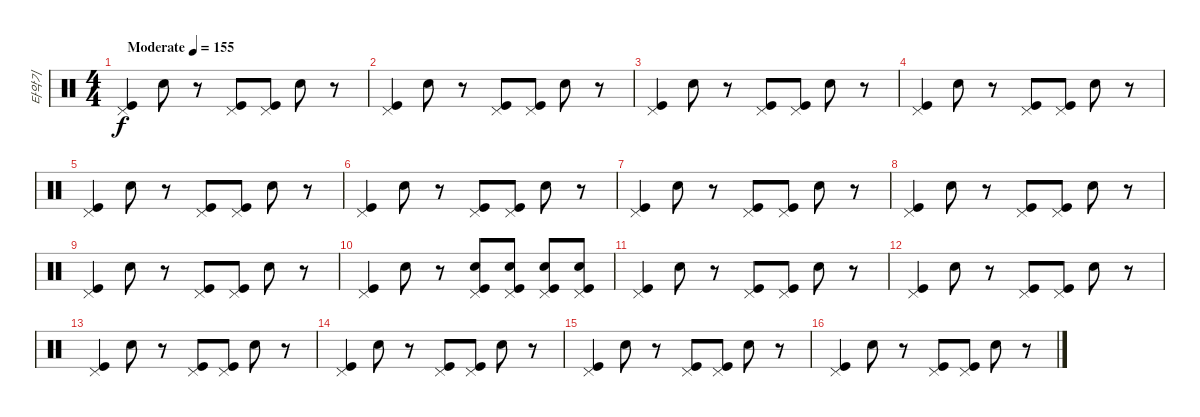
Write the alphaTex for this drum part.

\track ("타악기" "타악기") {instrument percussion}
\staff {score}
\articulation defaults
\ts (4 4)
\tempo (155 "Moderate")
\clef neutral
\ks c
("Pedal Hi-Hat (hit)" "Kick (hit)").4{dy f} "Electric Snare (hit)".8 r.8 ("Pedal Hi-Hat (hit)" "Kick (hit)").8 ("Pedal Hi-Hat (hit)" "Kick (hit)").8 "Electric Snare (hit)".8 r.8 |
("Pedal Hi-Hat (hit)" "Kick (hit)").4 "Electric Snare (hit)".8 r.8 ("Pedal Hi-Hat (hit)" "Kick (hit)").8 ("Pedal Hi-Hat (hit)" "Kick (hit)").8 "Electric Snare (hit)".8 r.8 |
("Pedal Hi-Hat (hit)" "Kick (hit)").4 "Electric Snare (hit)".8 r.8 ("Pedal Hi-Hat (hit)" "Kick (hit)").8 ("Pedal Hi-Hat (hit)" "Kick (hit)").8 "Electric Snare (hit)".8 r.8 |
("Pedal Hi-Hat (hit)" "Kick (hit)").4 "Electric Snare (hit)".8 r.8 ("Pedal Hi-Hat (hit)" "Kick (hit)").8 ("Pedal Hi-Hat (hit)" "Kick (hit)").8 "Electric Snare (hit)".8 r.8 |
("Pedal Hi-Hat (hit)" "Kick (hit)").4 "Electric Snare (hit)".8 r.8 ("Pedal Hi-Hat (hit)" "Kick (hit)").8 ("Pedal Hi-Hat (hit)" "Kick (hit)").8 "Electric Snare (hit)".8 r.8 |
("Pedal Hi-Hat (hit)" "Kick (hit)").4 "Electric Snare (hit)".8 r.8 ("Pedal Hi-Hat (hit)" "Kick (hit)").8 ("Pedal Hi-Hat (hit)" "Kick (hit)").8 "Electric Snare (hit)".8 r.8 |
("Pedal Hi-Hat (hit)" "Kick (hit)").4 "Electric Snare (hit)".8 r.8 ("Pedal Hi-Hat (hit)" "Kick (hit)").8 ("Pedal Hi-Hat (hit)" "Kick (hit)").8 "Electric Snare (hit)".8 r.8 |
("Pedal Hi-Hat (hit)" "Kick (hit)").4 "Electric Snare (hit)".8 r.8 ("Pedal Hi-Hat (hit)" "Kick (hit)").8 ("Pedal Hi-Hat (hit)" "Kick (hit)").8 "Electric Snare (hit)".8 r.8 |
("Pedal Hi-Hat (hit)" "Kick (hit)").4 "Electric Snare (hit)".8 r.8 ("Pedal Hi-Hat (hit)" "Kick (hit)").8 ("Pedal Hi-Hat (hit)" "Kick (hit)").8 "Electric Snare (hit)".8 r.8 |
("Pedal Hi-Hat (hit)" "Kick (hit)").4 "Electric Snare (hit)".8 r.8 ("Pedal Hi-Hat (hit)" "Electric Snare (hit)" "Kick (hit)").8 ("Pedal Hi-Hat (hit)" "Electric Snare (hit)" "Kick (hit)").8 ("Pedal Hi-Hat (hit)" "Electric Snare (hit)" "Kick (hit)").8 ("Pedal Hi-Hat (hit)" "Electric Snare (hit)" "Kick (hit)").8 |
("Pedal Hi-Hat (hit)" "Kick (hit)").4 "Electric Snare (hit)".8 r.8 ("Pedal Hi-Hat (hit)" "Kick (hit)").8 ("Pedal Hi-Hat (hit)" "Kick (hit)").8 "Electric Snare (hit)".8 r.8 |
("Pedal Hi-Hat (hit)" "Kick (hit)").4 "Electric Snare (hit)".8 r.8 ("Pedal Hi-Hat (hit)" "Kick (hit)").8 ("Pedal Hi-Hat (hit)" "Kick (hit)").8 "Electric Snare (hit)".8 r.8 |
("Pedal Hi-Hat (hit)" "Kick (hit)").4 "Electric Snare (hit)".8 r.8 ("Pedal Hi-Hat (hit)" "Kick (hit)").8 ("Pedal Hi-Hat (hit)" "Kick (hit)").8 "Electric Snare (hit)".8 r.8 |
("Pedal Hi-Hat (hit)" "Kick (hit)").4 "Electric Snare (hit)".8 r.8 ("Pedal Hi-Hat (hit)" "Kick (hit)").8 ("Pedal Hi-Hat (hit)" "Kick (hit)").8 "Electric Snare (hit)".8 r.8 |
("Pedal Hi-Hat (hit)" "Kick (hit)").4 "Electric Snare (hit)".8 r.8 ("Pedal Hi-Hat (hit)" "Kick (hit)").8 ("Pedal Hi-Hat (hit)" "Kick (hit)").8 "Electric Snare (hit)".8 r.8 |
("Pedal Hi-Hat (hit)" "Kick (hit)").4 "Electric Snare (hit)".8 r.8 ("Pedal Hi-Hat (hit)" "Kick (hit)").8 ("Pedal Hi-Hat (hit)" "Kick (hit)").8 "Electric Snare (hit)".8 r.8
